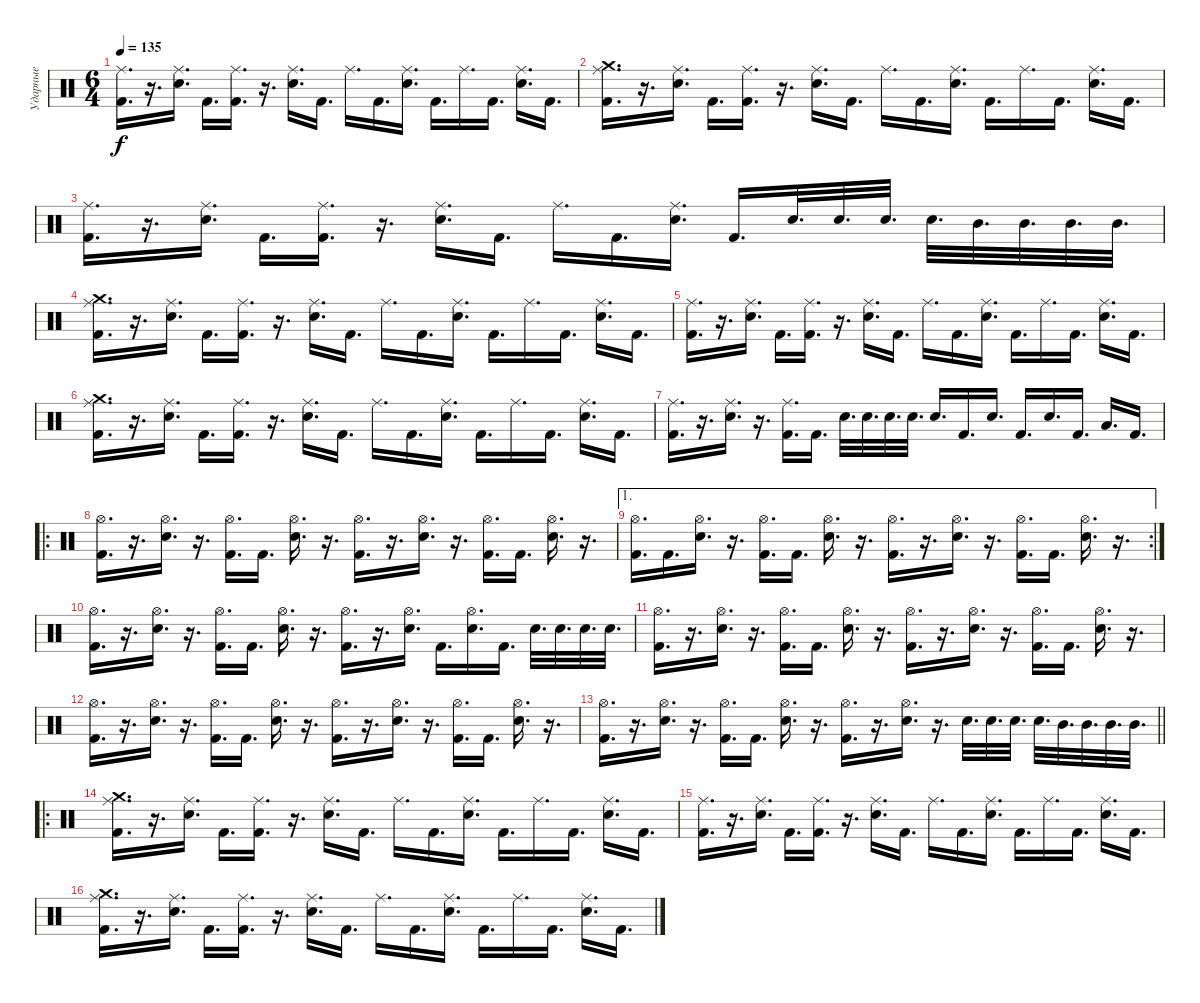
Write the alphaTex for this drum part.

\track ("Ударные" "Ударные") {instrument percussion}
\staff {score}
\articulation defaults
\ts (6 4)
\tempo 135
\clef neutral
\ks c
("Ride (middle)" "Kick (hit) 2").16{d dy f} r.16{d} ("Ride (middle)" "Electric Snare (hit)").16{d} "Kick (hit) 2".16{d} ("Ride (middle)" "Kick (hit) 2").16{d} r.16{d} ("Ride (middle)" "Electric Snare (hit)").16{d} "Kick (hit) 2".16{d} "Ride (middle)".16{d} "Kick (hit) 2".16{d} ("Ride (middle)" "Electric Snare (hit)").16{d} "Kick (hit) 2".16{d} "Ride (middle)".16{d} "Kick (hit) 2".16{d} ("Ride (middle)" "Electric Snare (hit)").16{d} "Kick (hit) 2".16{d} |
("Ride (middle)" "Crash medium (hit)" "Kick (hit) 2").16{d} r.16{d} ("Ride (middle)" "Electric Snare (hit)").16{d} "Kick (hit) 2".16{d} ("Ride (middle)" "Kick (hit) 2").16{d} r.16{d} ("Ride (middle)" "Electric Snare (hit)").16{d} "Kick (hit) 2".16{d} "Ride (middle)".16{d} "Kick (hit) 2".16{d} ("Ride (middle)" "Electric Snare (hit)").16{d} "Kick (hit) 2".16{d} "Ride (middle)".16{d} "Kick (hit) 2".16{d} ("Ride (middle)" "Electric Snare (hit)").16{d} "Kick (hit) 2".16{d} |
("Ride (middle)" "Kick (hit) 2").16{d} r.16{d} ("Ride (middle)" "Electric Snare (hit)").16{d} "Kick (hit) 2".16{d} ("Ride (middle)" "Kick (hit) 2").16{d} r.16{d} ("Ride (middle)" "Electric Snare (hit)").16{d} "Kick (hit) 2".16{d} "Ride (middle)".16{d} "Kick (hit) 2".16{d} ("Ride (middle)" "Electric Snare (hit)").16{d} "Kick (hit) 2".16{d} "Electric Snare (hit)".32{d} "Electric Snare (hit)".32{d} "Electric Snare (hit)".32{d} "Electric Snare (hit)".32{d} "Mid Tom (hit)".32{d} "Mid Tom (hit)".32{d} "Mid Tom (hit)".32{d} "Mid Tom (hit)".32{d} |
("Ride (middle)" "Crash medium (hit)" "Kick (hit) 2").16{d} r.16{d} ("Ride (middle)" "Electric Snare (hit)").16{d} "Kick (hit) 2".16{d} ("Ride (middle)" "Kick (hit) 2").16{d} r.16{d} ("Ride (middle)" "Electric Snare (hit)").16{d} "Kick (hit) 2".16{d} "Ride (middle)".16{d} "Kick (hit) 2".16{d} ("Ride (middle)" "Electric Snare (hit)").16{d} "Kick (hit) 2".16{d} "Ride (middle)".16{d} "Kick (hit) 2".16{d} ("Ride (middle)" "Electric Snare (hit)").16{d} "Kick (hit) 2".16{d} |
("Ride (middle)" "Kick (hit) 2").16{d} r.16{d} ("Ride (middle)" "Electric Snare (hit)").16{d} "Kick (hit) 2".16{d} ("Ride (middle)" "Kick (hit) 2").16{d} r.16{d} ("Ride (middle)" "Electric Snare (hit)").16{d} "Kick (hit) 2".16{d} "Ride (middle)".16{d} "Kick (hit) 2".16{d} ("Ride (middle)" "Electric Snare (hit)").16{d} "Kick (hit) 2".16{d} "Ride (middle)".16{d} "Kick (hit) 2".16{d} ("Ride (middle)" "Electric Snare (hit)").16{d} "Kick (hit) 2".16{d} |
("Ride (middle)" "Crash medium (hit)" "Kick (hit) 2").16{d} r.16{d} ("Ride (middle)" "Electric Snare (hit)").16{d} "Kick (hit) 2".16{d} ("Ride (middle)" "Kick (hit) 2").16{d} r.16{d} ("Ride (middle)" "Electric Snare (hit)").16{d} "Kick (hit) 2".16{d} "Ride (middle)".16{d} "Kick (hit) 2".16{d} ("Ride (middle)" "Electric Snare (hit)").16{d} "Kick (hit) 2".16{d} "Ride (middle)".16{d} "Kick (hit) 2".16{d} ("Ride (middle)" "Electric Snare (hit)").16{d} "Kick (hit) 2".16{d} |
("Ride (middle)" "Kick (hit) 2").16{d} r.16{d} ("Ride (middle)" "Electric Snare (hit)").16{d} r.16{d} ("Ride (middle)" "Kick (hit) 2").16{d} "Kick (hit) 2".16{d} "Electric Snare (hit)".32{d} "Electric Snare (hit)".32{d} "Electric Snare (hit)".32{d} "Electric Snare (hit)".32{d} "Electric Snare (hit)".16{d} "Kick (hit) 2".16{d} "Electric Snare (hit)".16{d} "Kick (hit) 2".16{d} "Electric Snare (hit)".16{d} "Kick (hit) 2".16{d} "Low Tom (hit)".16{d} "Kick (hit) 2".16{d} |
\ro
("Hi-Hat (open)" "Kick (hit) 2").16{d} r.16{d} ("Hi-Hat (open)" "Electric Snare (hit)").16{d} r.16{d} ("Hi-Hat (open)" "Kick (hit) 2").16{d} "Kick (hit) 2".16{d} ("Hi-Hat (open)" "Electric Snare (hit)").16{d} r.16{d} ("Hi-Hat (open)" "Kick (hit) 2").16{d} r.16{d} ("Hi-Hat (open)" "Electric Snare (hit)").16{d} r.16{d} ("Hi-Hat (open)" "Kick (hit) 2").16{d} "Kick (hit) 2".16{d} ("Hi-Hat (open)" "Electric Snare (hit)").16{d} r.16{d} |
\ae 1
\rc 2
("Hi-Hat (open)" "Kick (hit) 2").16{d} "Kick (hit) 2".16{d} ("Hi-Hat (open)" "Electric Snare (hit)").16{d} r.16{d} ("Hi-Hat (open)" "Kick (hit) 2").16{d} "Kick (hit) 2".16{d} ("Hi-Hat (open)" "Electric Snare (hit)").16{d} r.16{d} ("Hi-Hat (open)" "Kick (hit) 2").16{d} r.16{d} ("Hi-Hat (open)" "Electric Snare (hit)").16{d} r.16{d} ("Hi-Hat (open)" "Kick (hit) 2").16{d} "Kick (hit) 2".16{d} ("Hi-Hat (open)" "Electric Snare (hit)").16{d} r.16{d} |
("Hi-Hat (open)" "Kick (hit) 2").16{d} r.16{d} ("Hi-Hat (open)" "Electric Snare (hit)").16{d} r.16{d} ("Hi-Hat (open)" "Kick (hit) 2").16{d} "Kick (hit) 2".16{d} ("Hi-Hat (open)" "Electric Snare (hit)").16{d} r.16{d} ("Hi-Hat (open)" "Kick (hit) 2").16{d} r.16{d} ("Hi-Hat (open)" "Electric Snare (hit)").16{d} "Kick (hit) 2".16{d} ("Hi-Hat (open)" "Electric Snare (hit)").16{d} "Kick (hit) 2".16{d} "Electric Snare (hit)".32{d} "Electric Snare (hit)".32{d} "Electric Snare (hit)".32{d} "Electric Snare (hit)".32{d} |
("Hi-Hat (open)" "Kick (hit) 2").16{d} r.16{d} ("Hi-Hat (open)" "Electric Snare (hit)").16{d} r.16{d} ("Hi-Hat (open)" "Kick (hit) 2").16{d} "Kick (hit) 2".16{d} ("Hi-Hat (open)" "Electric Snare (hit)").16{d} r.16{d} ("Hi-Hat (open)" "Kick (hit) 2").16{d} r.16{d} ("Hi-Hat (open)" "Electric Snare (hit)").16{d} r.16{d} ("Hi-Hat (open)" "Kick (hit) 2").16{d} "Kick (hit) 2".16{d} ("Hi-Hat (open)" "Electric Snare (hit)").16{d} r.16{d} |
("Hi-Hat (open)" "Kick (hit) 2").16{d} r.16{d} ("Hi-Hat (open)" "Electric Snare (hit)").16{d} r.16{d} ("Hi-Hat (open)" "Kick (hit) 2").16{d} "Kick (hit) 2".16{d} ("Hi-Hat (open)" "Electric Snare (hit)").16{d} r.16{d} ("Hi-Hat (open)" "Kick (hit) 2").16{d} r.16{d} ("Hi-Hat (open)" "Electric Snare (hit)").16{d} r.16{d} ("Hi-Hat (open)" "Kick (hit) 2").16{d} "Kick (hit) 2".16{d} ("Hi-Hat (open)" "Electric Snare (hit)").16{d} r.16{d} |
\barLineRight lightlight
("Hi-Hat (open)" "Kick (hit) 2").16{d} r.16{d} ("Hi-Hat (open)" "Electric Snare (hit)").16{d} r.16{d} ("Hi-Hat (open)" "Kick (hit) 2").16{d} "Kick (hit) 2".16{d} ("Hi-Hat (open)" "Electric Snare (hit)").16{d} r.16{d} ("Hi-Hat (open)" "Kick (hit) 2").16{d} r.16{d} ("Hi-Hat (open)" "Electric Snare (hit)").16{d} r.16{d} "Electric Snare (hit)".32{d} "Electric Snare (hit)".32{d} "Electric Snare (hit)".32{d} "Electric Snare (hit)".32{d} "Mid Tom (hit)".32{d} "Mid Tom (hit)".32{d} "Mid Tom (hit)".32{d} "Mid Tom (hit)".32{d} |
\ro
("Ride (middle)" "Crash medium (hit)" "Kick (hit) 2").16{d} r.16{d} ("Ride (middle)" "Electric Snare (hit)").16{d} "Kick (hit) 2".16{d} ("Ride (middle)" "Kick (hit) 2").16{d} r.16{d} ("Ride (middle)" "Electric Snare (hit)").16{d} "Kick (hit) 2".16{d} "Ride (middle)".16{d} "Kick (hit) 2".16{d} ("Ride (middle)" "Electric Snare (hit)").16{d} "Kick (hit) 2".16{d} "Ride (middle)".16{d} "Kick (hit) 2".16{d} ("Ride (middle)" "Electric Snare (hit)").16{d} "Kick (hit) 2".16{d} |
("Ride (middle)" "Kick (hit) 2").16{d} r.16{d} ("Ride (middle)" "Electric Snare (hit)").16{d} "Kick (hit) 2".16{d} ("Ride (middle)" "Kick (hit) 2").16{d} r.16{d} ("Ride (middle)" "Electric Snare (hit)").16{d} "Kick (hit) 2".16{d} "Ride (middle)".16{d} "Kick (hit) 2".16{d} ("Ride (middle)" "Electric Snare (hit)").16{d} "Kick (hit) 2".16{d} "Ride (middle)".16{d} "Kick (hit) 2".16{d} ("Ride (middle)" "Electric Snare (hit)").16{d} "Kick (hit) 2".16{d} |
("Ride (middle)" "Crash medium (hit)" "Kick (hit) 2").16{d} r.16{d} ("Ride (middle)" "Electric Snare (hit)").16{d} "Kick (hit) 2".16{d} ("Ride (middle)" "Kick (hit) 2").16{d} r.16{d} ("Ride (middle)" "Electric Snare (hit)").16{d} "Kick (hit) 2".16{d} "Ride (middle)".16{d} "Kick (hit) 2".16{d} ("Ride (middle)" "Electric Snare (hit)").16{d} "Kick (hit) 2".16{d} "Ride (middle)".16{d} "Kick (hit) 2".16{d} ("Ride (middle)" "Electric Snare (hit)").16{d} "Kick (hit) 2".16{d}
